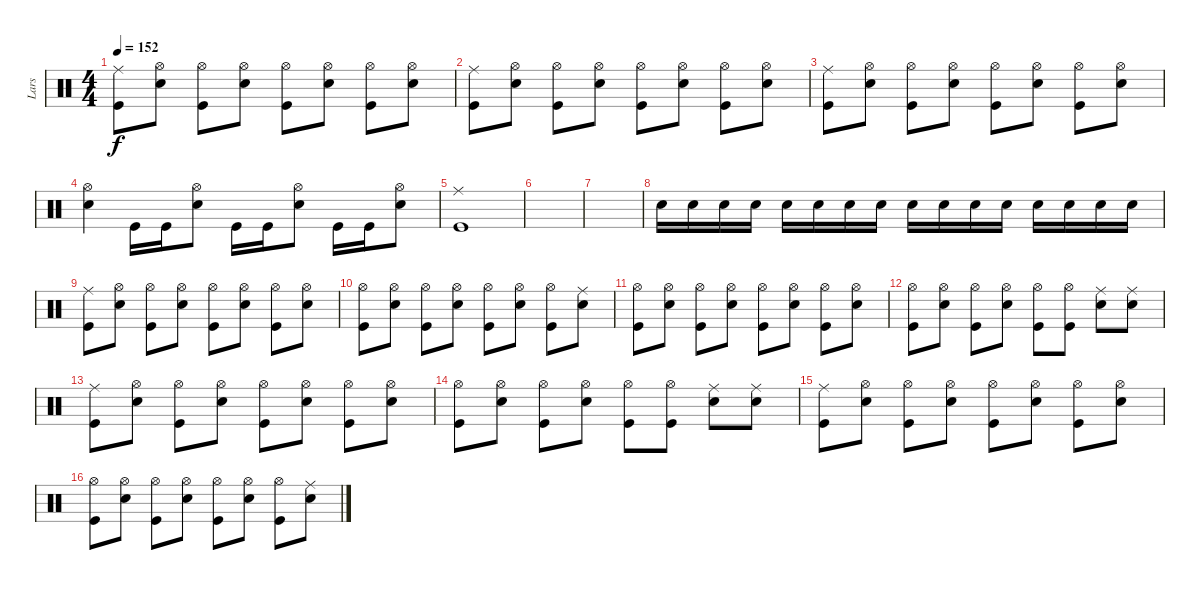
\track ("Lars" "Lars") {instrument percussion}
\staff {score}
\articulation defaults
\ts (4 4)
\tempo 152
\clef neutral
\ks c
("Ride (middle)" "Kick (hit)").8{dy f} ("Hi-Hat (open)" "Snare (hit) 2").8 ("Hi-Hat (open)" "Kick (hit)").8 ("Hi-Hat (open)" "Snare (hit) 2").8 ("Hi-Hat (open)" "Kick (hit)").8 ("Hi-Hat (open)" "Snare (hit) 2").8 ("Hi-Hat (open)" "Kick (hit)").8 ("Hi-Hat (open)" "Snare (hit) 2").8 |
("Ride (middle)" "Kick (hit)").8 ("Hi-Hat (open)" "Snare (hit) 2").8 ("Hi-Hat (open)" "Kick (hit)").8 ("Hi-Hat (open)" "Snare (hit) 2").8 ("Hi-Hat (open)" "Kick (hit)").8 ("Hi-Hat (open)" "Snare (hit) 2").8 ("Hi-Hat (open)" "Kick (hit)").8 ("Hi-Hat (open)" "Snare (hit) 2").8 |
("Ride (middle)" "Kick (hit)").8 ("Hi-Hat (open)" "Snare (hit) 2").8 ("Hi-Hat (open)" "Kick (hit)").8 ("Hi-Hat (open)" "Snare (hit) 2").8 ("Hi-Hat (open)" "Kick (hit)").8 ("Hi-Hat (open)" "Snare (hit) 2").8 ("Hi-Hat (open)" "Kick (hit)").8 ("Hi-Hat (open)" "Snare (hit) 2").8 |
("Hi-Hat (open)" "Snare (hit) 2").4 "Kick (hit)".16 "Kick (hit)".16 ("Hi-Hat (open)" "Snare (hit) 2").8 "Kick (hit)".16 "Kick (hit)".16 ("Hi-Hat (open)" "Snare (hit) 2").8 "Kick (hit)".16 "Kick (hit)".16 ("Hi-Hat (open)" "Snare (hit) 2").8 |
("Ride (middle)" "Kick (hit)").1 |
|
|
"Snare (hit) 2".16 "Snare (hit) 2".16 "Snare (hit) 2".16 "Snare (hit) 2".16 "Snare (hit) 2".16 "Snare (hit) 2".16 "Snare (hit) 2".16 "Snare (hit) 2".16 "Snare (hit) 2".16 "Snare (hit) 2".16 "Snare (hit) 2".16 "Snare (hit) 2".16 "Snare (hit) 2".16 "Snare (hit) 2".16 "Snare (hit) 2".16 "Snare (hit) 2".16 |
("Ride (middle)" "Kick (hit)").8 ("Hi-Hat (open)" "Snare (hit) 2").8 ("Hi-Hat (open)" "Kick (hit)").8 ("Hi-Hat (open)" "Snare (hit) 2").8 ("Hi-Hat (open)" "Kick (hit)").8 ("Hi-Hat (open)" "Snare (hit) 2").8 ("Hi-Hat (open)" "Kick (hit)").8 ("Hi-Hat (open)" "Snare (hit) 2").8 |
("Hi-Hat (open)" "Kick (hit)").8 ("Hi-Hat (open)" "Snare (hit) 2").8 ("Hi-Hat (open)" "Kick (hit)").8 ("Hi-Hat (open)" "Snare (hit) 2").8 ("Hi-Hat (open)" "Kick (hit)").8 ("Hi-Hat (open)" "Snare (hit) 2").8 ("Hi-Hat (open)" "Kick (hit)").8 ("Ride (middle)" "Snare (hit) 2").8 |
("Hi-Hat (open)" "Kick (hit)").8 ("Hi-Hat (open)" "Snare (hit) 2").8 ("Hi-Hat (open)" "Kick (hit)").8 ("Hi-Hat (open)" "Snare (hit) 2").8 ("Hi-Hat (open)" "Kick (hit)").8 ("Hi-Hat (open)" "Snare (hit) 2").8 ("Hi-Hat (open)" "Kick (hit)").8 ("Hi-Hat (open)" "Snare (hit) 2").8 |
("Hi-Hat (open)" "Kick (hit)").8 ("Hi-Hat (open)" "Snare (hit) 2").8 ("Hi-Hat (open)" "Kick (hit)").8 ("Hi-Hat (open)" "Snare (hit) 2").8 ("Hi-Hat (open)" "Kick (hit)").8 ("Hi-Hat (open)" "Kick (hit)").8 ("Ride (middle)" "Snare (hit) 2").8 ("Ride (middle)" "Snare (hit) 2").8 |
("Ride (middle)" "Kick (hit)").8 ("Hi-Hat (open)" "Snare (hit) 2").8 ("Hi-Hat (open)" "Kick (hit)").8 ("Hi-Hat (open)" "Snare (hit) 2").8 ("Hi-Hat (open)" "Kick (hit)").8 ("Hi-Hat (open)" "Snare (hit) 2").8 ("Hi-Hat (open)" "Kick (hit)").8 ("Hi-Hat (open)" "Snare (hit) 2").8 |
("Hi-Hat (open)" "Kick (hit)").8 ("Hi-Hat (open)" "Snare (hit) 2").8 ("Hi-Hat (open)" "Kick (hit)").8 ("Hi-Hat (open)" "Snare (hit) 2").8 ("Hi-Hat (open)" "Kick (hit)").8 ("Hi-Hat (open)" "Kick (hit)").8 ("Ride (middle)" "Snare (hit) 2").8 ("Ride (middle)" "Snare (hit) 2").8 |
("Ride (middle)" "Kick (hit)").8 ("Hi-Hat (open)" "Snare (hit) 2").8 ("Hi-Hat (open)" "Kick (hit)").8 ("Hi-Hat (open)" "Snare (hit) 2").8 ("Hi-Hat (open)" "Kick (hit)").8 ("Hi-Hat (open)" "Snare (hit) 2").8 ("Hi-Hat (open)" "Kick (hit)").8 ("Hi-Hat (open)" "Snare (hit) 2").8 |
("Hi-Hat (open)" "Kick (hit)").8 ("Hi-Hat (open)" "Snare (hit) 2").8 ("Hi-Hat (open)" "Kick (hit)").8 ("Hi-Hat (open)" "Snare (hit) 2").8 ("Hi-Hat (open)" "Kick (hit)").8 ("Hi-Hat (open)" "Snare (hit) 2").8 ("Hi-Hat (open)" "Kick (hit)").8 ("Ride (middle)" "Snare (hit) 2").8
